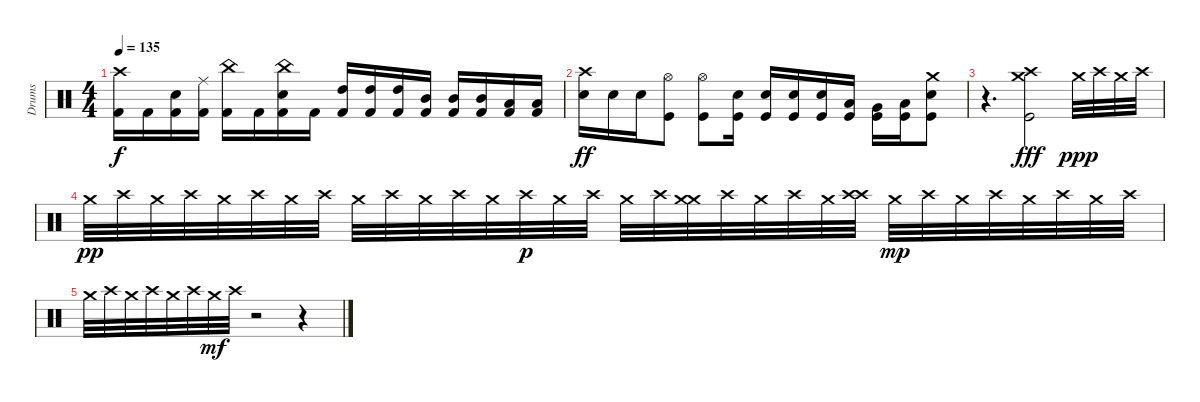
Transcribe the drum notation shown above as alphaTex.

\track ("Drums" "Drums") {instrument percussion}
\staff {score}
\articulation defaults
\ts (4 4)
\tempo 135
\clef neutral
\ks c
("Crash high (hit)" "Kick (hit) 2").16{dy f} "Kick (hit) 2".16 ("Snare (hit) 2" "Kick (hit) 2").16 ("Ride (middle)" "Kick (hit) 2").16 ("China (hit)" "Kick (hit) 2").16 "Kick (hit) 2".16 ("China (hit)" "Snare (hit) 2" "Kick (hit) 2").16 "Kick (hit) 2".16 ("High Tom (hit)" "Kick (hit) 2").16 ("High Tom (hit)" "Kick (hit) 2").16 ("High Tom (hit)" "Kick (hit) 2").16 ("Mid Tom (hit)" "Kick (hit) 2").16 ("Mid Tom (hit)" "Kick (hit) 2").16 ("Mid Tom (hit)" "Kick (hit) 2").16 ("Low Tom (hit)" "Kick (hit) 2").16 ("Low Tom (hit)" "Kick (hit) 2").16 |
("Crash high (hit)" "Snare (hit) 2").16{dy ff} "Snare (hit) 2".16 "Snare (hit) 2".16 ("Hi-Hat (open)" "Kick (hit)").8 ("Hi-Hat (open)" "Kick (hit)").8 ("Kick (hit)" "Snare (hit) 2").16 ("Kick (hit)" "Snare (hit) 2").16 ("Kick (hit)" "Snare (hit) 2").16 ("Kick (hit)" "Snare (hit) 2").16 ("Kick (hit)" "Low Tom (hit)").16 ("Kick (hit)" "Very Low Tom (hit)").16 ("Kick (hit)" "Low Floor Tom (hit)").16 ("Kick (hit)" "Crash medium (hit)" "Snare (hit) 2").8 |
r.4{d} ("Kick (hit)" "Crash high (hit)" "Crash medium (hit)").2{dy fff} "Crash medium (hit)".32{dy ppp} "Crash high (hit)".32 "Crash medium (hit)".32 "Crash high (hit)".32 |
"Crash medium (hit)".32{dy pp} "Crash high (hit)".32 "Crash medium (hit)".32 "Crash high (hit)".32 "Crash medium (hit)".32 "Crash high (hit)".32 "Crash medium (hit)".32 "Crash high (hit)".32 "Crash medium (hit)".32 "Crash high (hit)".32 "Crash medium (hit)".32 "Crash high (hit)".32 "Crash medium (hit)".32 "Crash high (hit)".32{dy p} "Crash medium (hit)".32 "Crash high (hit)".32 "Crash medium (hit)".32 "Crash high (hit)".32 ("Crash medium (hit)" "Crash medium (hit)").32 "Crash high (hit)".32 "Crash medium (hit)".32 "Crash high (hit)".32 "Crash medium (hit)".32 ("Crash high (hit)" "Crash high (hit)").32 "Crash medium (hit)".32{dy mp} "Crash high (hit)".32 "Crash medium (hit)".32 "Crash high (hit)".32 "Crash medium (hit)".32 "Crash high (hit)".32 "Crash medium (hit)".32 "Crash high (hit)".32 |
"Crash medium (hit)".32 "Crash high (hit)".32 "Crash medium (hit)".32 "Crash high (hit)".32 "Crash medium (hit)".32 "Crash high (hit)".32 "Crash medium (hit)".32{dy mf} "Crash high (hit)".32 r.2 r.4
